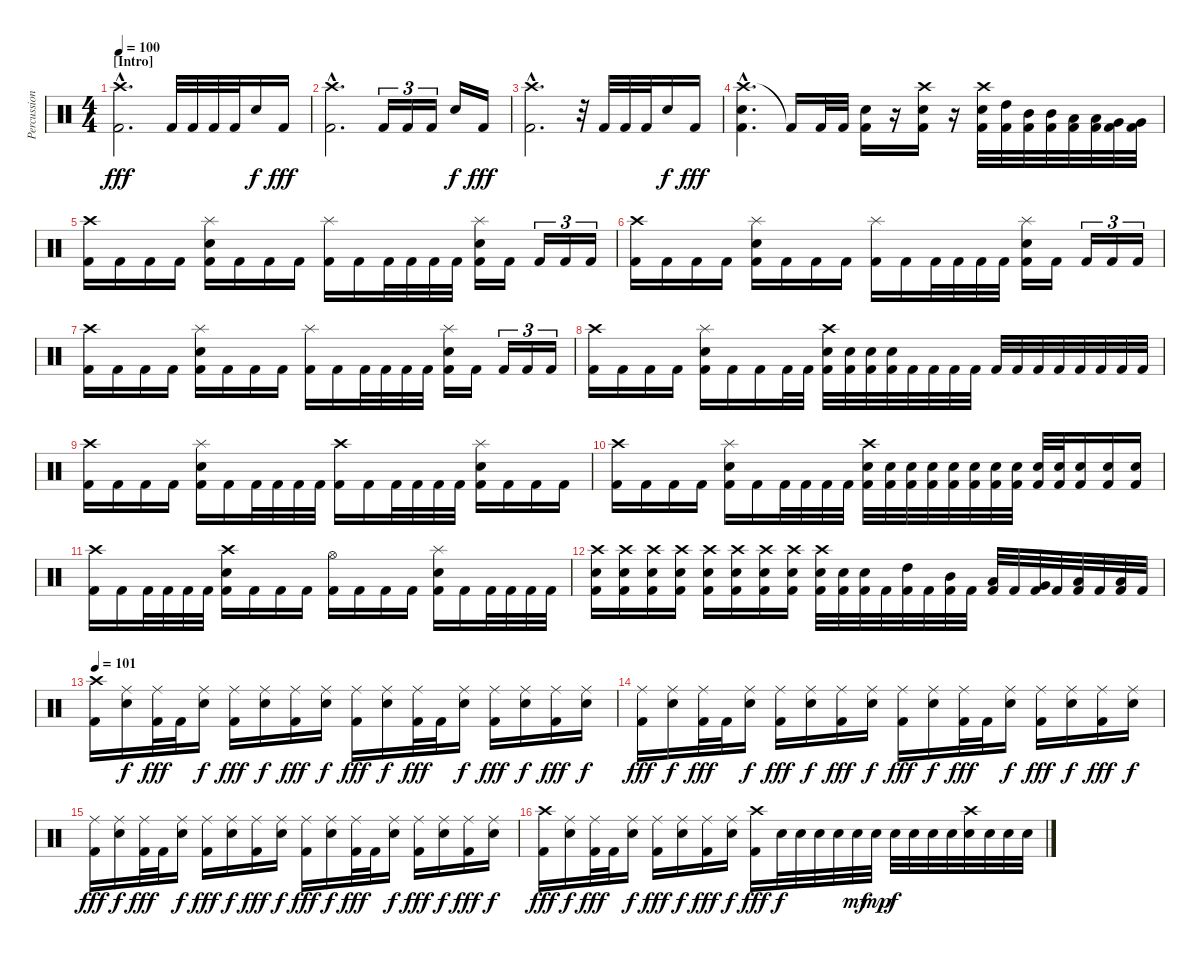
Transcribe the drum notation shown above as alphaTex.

\track ("Percussion" "Percussion") {instrument percussion}
\staff {score}
\articulation defaults
\ts (4 4)
\section ("" "[Intro]")
\tempo 100
\clef neutral
\ks c
("Crash high (hit)"{hac} "Kick (hit) 2"{hac}).2{d dy fff} "Kick (hit) 2".32 "Kick (hit) 2".32 "Kick (hit) 2".32 "Kick (hit) 2".32 "Snare (hit) 2".16{dy f} "Kick (hit) 2".16{dy fff} |
("Crash high (hit)"{hac} "Kick (hit) 2"{hac}).2{d} "Kick (hit) 2".16{tu (3 2)} "Kick (hit) 2".16{tu (3 2)} "Kick (hit) 2".16{tu (3 2)} "Snare (hit) 2".16{dy f} "Kick (hit) 2".16{dy fff} |
("Crash high (hit)"{hac} "Kick (hit) 2"{hac}).2{d} r.32 "Kick (hit) 2".32 "Kick (hit) 2".32 "Kick (hit) 2".32 "Snare (hit) 2".16{dy f} "Kick (hit) 2".16{dy fff} |
("Crash high (hit)"{hac} "Snare (hit) 2"{hac} "Kick (hit) 2"{hac}).4{d} "Kick (hit) 2"{t}.16 "Kick (hit) 2".32 "Kick (hit) 2".32 ("Snare (hit) 2" "Kick (hit) 2").16 r.16 ("Crash high (hit)" "Snare (hit) 2" "Kick (hit) 2").16 r.16 ("Crash high (hit)" "Snare (hit) 2" "Kick (hit) 2").32 ("High Tom (hit)" "Kick (hit) 2").32 ("Mid Tom (hit)" "Kick (hit) 2").32 ("Mid Tom (hit)" "Kick (hit) 2").32 ("Low Tom (hit)" "Kick (hit) 2").32 ("Low Tom (hit)" "Kick (hit) 2").32 ("Very Low Tom (hit)" "Kick (hit) 2").32 ("Very Low Tom (hit)" "Kick (hit) 2").32 |
\section ("" "")
("Crash high (hit)" "Kick (hit) 2").16 "Kick (hit) 2".16 "Kick (hit) 2".16 "Kick (hit) 2".16 ("Splash (hit)" "Snare (hit) 2" "Kick (hit) 2").16 "Kick (hit) 2".16 "Kick (hit) 2".16 "Kick (hit) 2".16 ("Splash (hit)" "Kick (hit) 2").16 "Kick (hit) 2".16 "Kick (hit) 2".32 "Kick (hit) 2".32 "Kick (hit) 2".32 "Kick (hit) 2".32 ("Splash (hit)" "Snare (hit) 2" "Kick (hit) 2").16 "Kick (hit) 2".16 "Kick (hit) 2".16{tu (3 2)} "Kick (hit) 2".16{tu (3 2)} "Kick (hit) 2".16{tu (3 2)} |
("Crash high (hit)" "Kick (hit) 2").16 "Kick (hit) 2".16 "Kick (hit) 2".16 "Kick (hit) 2".16 ("Splash (hit)" "Snare (hit) 2" "Kick (hit) 2").16 "Kick (hit) 2".16 "Kick (hit) 2".16 "Kick (hit) 2".16 ("Splash (hit)" "Kick (hit) 2").16 "Kick (hit) 2".16 "Kick (hit) 2".32 "Kick (hit) 2".32 "Kick (hit) 2".32 "Kick (hit) 2".32 ("Splash (hit)" "Snare (hit) 2" "Kick (hit) 2").16 "Kick (hit) 2".16 "Kick (hit) 2".16{tu (3 2)} "Kick (hit) 2".16{tu (3 2)} "Kick (hit) 2".16{tu (3 2)} |
("Crash high (hit)" "Kick (hit) 2").16 "Kick (hit) 2".16 "Kick (hit) 2".16 "Kick (hit) 2".16 ("Splash (hit)" "Snare (hit) 2" "Kick (hit) 2").16 "Kick (hit) 2".16 "Kick (hit) 2".16 "Kick (hit) 2".16 ("Splash (hit)" "Kick (hit) 2").16 "Kick (hit) 2".16 "Kick (hit) 2".32 "Kick (hit) 2".32 "Kick (hit) 2".32 "Kick (hit) 2".32 ("Splash (hit)" "Snare (hit) 2" "Kick (hit) 2").16 "Kick (hit) 2".16 "Kick (hit) 2".16{tu (3 2)} "Kick (hit) 2".16{tu (3 2)} "Kick (hit) 2".16{tu (3 2)} |
("Crash high (hit)" "Kick (hit) 2").16 "Kick (hit) 2".16 "Kick (hit) 2".16 "Kick (hit) 2".16 ("Splash (hit)" "Snare (hit) 2" "Kick (hit) 2").16 "Kick (hit) 2".16 "Kick (hit) 2".16 "Kick (hit) 2".32 "Kick (hit) 2".32 ("Crash high (hit)" "Snare (hit) 2" "Kick (hit) 2").32 ("Snare (hit) 2" "Kick (hit) 2").32 ("Snare (hit) 2" "Kick (hit) 2").32 ("Snare (hit) 2" "Kick (hit) 2").32 "Kick (hit) 2".32 "Kick (hit) 2".32 "Kick (hit) 2".32 "Kick (hit) 2".32 "Kick (hit) 2".32 "Kick (hit) 2".32 "Kick (hit) 2".32 "Kick (hit) 2".32 "Kick (hit) 2".32 "Kick (hit) 2".32 "Kick (hit) 2".32 "Kick (hit) 2".32 |
\section ("" "")
("Crash high (hit)" "Kick (hit) 2").16 "Kick (hit) 2".16 "Kick (hit) 2".16 "Kick (hit) 2".16 ("Splash (hit)" "Snare (hit) 2" "Kick (hit) 2").16 "Kick (hit) 2".16 "Kick (hit) 2".32 "Kick (hit) 2".32 "Kick (hit) 2".32 "Kick (hit) 2".32 ("Crash high (hit)" "Kick (hit) 2").16 "Kick (hit) 2".16 "Kick (hit) 2".32 "Kick (hit) 2".32 "Kick (hit) 2".32 "Kick (hit) 2".32 ("Splash (hit)" "Snare (hit) 2" "Kick (hit) 2").16 "Kick (hit) 2".16 "Kick (hit) 2".16 "Kick (hit) 2".16 |
("Crash high (hit)" "Kick (hit) 2").16 "Kick (hit) 2".16 "Kick (hit) 2".16 "Kick (hit) 2".16 ("Splash (hit)" "Snare (hit) 2" "Kick (hit) 2").16 "Kick (hit) 2".16 "Kick (hit) 2".32 "Kick (hit) 2".32 "Kick (hit) 2".32 "Kick (hit) 2".32 ("Crash high (hit)" "Snare (hit) 2" "Kick (hit) 2").32 ("Snare (hit) 2" "Kick (hit) 2").32 ("Snare (hit) 2" "Kick (hit) 2").32 ("Snare (hit) 2" "Kick (hit) 2").32 ("Snare (hit) 2" "Kick (hit) 2").32 ("Snare (hit) 2" "Kick (hit) 2").32 ("Snare (hit) 2" "Kick (hit) 2").32 ("Snare (hit) 2" "Kick (hit) 2").32 ("Snare (hit) 2" "Kick (hit) 2").32 ("Snare (hit) 2" "Kick (hit) 2").32 ("Snare (hit) 2" "Kick (hit) 2").16 ("Snare (hit) 2" "Kick (hit) 2").16 ("Snare (hit) 2" "Kick (hit) 2").16 |
("Crash high (hit)" "Kick (hit) 2").16 "Kick (hit) 2".16 "Kick (hit) 2".32 "Kick (hit) 2".32 "Kick (hit) 2".32 "Kick (hit) 2".32 ("Crash high (hit)" "Snare (hit) 2" "Kick (hit) 2").16 "Kick (hit) 2".16 "Kick (hit) 2".16 "Kick (hit) 2".16 ("Hi-Hat (open)" "Kick (hit) 2").16 "Kick (hit) 2".16 "Kick (hit) 2".16 "Kick (hit) 2".16 ("Splash (hit)" "Snare (hit) 2" "Kick (hit) 2").16 "Kick (hit) 2".16 "Kick (hit) 2".32 "Kick (hit) 2".32 "Kick (hit) 2".32 "Kick (hit) 2".32 |
("Crash high (hit)" "Snare (hit) 2" "Kick (hit) 2").16 ("Crash high (hit)" "Snare (hit) 2" "Kick (hit) 2").16 ("Crash high (hit)" "Snare (hit) 2" "Kick (hit) 2").16 ("Crash high (hit)" "Snare (hit) 2" "Kick (hit) 2").16 ("Crash high (hit)" "Snare (hit) 2" "Kick (hit) 2").16 ("Crash high (hit)" "Snare (hit) 2" "Kick (hit) 2").16 ("Crash high (hit)" "Snare (hit) 2" "Kick (hit) 2").16 ("Crash high (hit)" "Snare (hit) 2" "Kick (hit) 2").16 ("Crash high (hit)" "Snare (hit) 2" "Kick (hit) 2").32 ("Snare (hit) 2" "Kick (hit) 2").32 ("Snare (hit) 2" "Kick (hit) 2").32 "Kick (hit) 2".32 ("High Tom (hit)" "Kick (hit) 2").32 "Kick (hit) 2".32 ("Mid Tom (hit)" "Kick (hit) 2").32 "Kick (hit) 2".32 ("Low Tom (hit)" "Kick (hit) 2").32 "Kick (hit) 2".32 ("Very Low Tom (hit)" "Kick (hit) 2").32 "Kick (hit) 2".32 ("Low Floor Tom (hit)" "Kick (hit) 2").32 "Kick (hit) 2".32 ("Low Floor Tom (hit)" "Kick (hit) 2").32 "Kick (hit) 2".32 |
\section ("" "")
\tempo 101
("Crash high (hit)" "Kick (hit) 2").16 ("Ride (middle)" "Snare (hit) 2").16{dy f} ("Ride (middle)" "Kick (hit) 2").32{dy fff} "Kick (hit) 2".32 ("Ride (middle)" "Snare (hit) 2").16{dy f} ("Ride (middle)" "Kick (hit) 2").16{dy fff} ("Ride (middle)" "Snare (hit) 2").16{dy f} ("Ride (middle)" "Kick (hit) 2").16{dy fff} ("Ride (middle)" "Snare (hit) 2").16{dy f} ("Ride (middle)" "Kick (hit) 2").16{dy fff} ("Ride (middle)" "Snare (hit) 2").16{dy f} ("Ride (middle)" "Kick (hit) 2").32{dy fff} "Kick (hit) 2".32 ("Ride (middle)" "Snare (hit) 2").16{dy f} ("Ride (middle)" "Kick (hit) 2").16{dy fff} ("Ride (middle)" "Snare (hit) 2").16{dy f} ("Ride (middle)" "Kick (hit) 2").16{dy fff} ("Ride (middle)" "Snare (hit) 2").16{dy f} |
("Ride (middle)" "Kick (hit) 2").16{dy fff} ("Ride (middle)" "Snare (hit) 2").16{dy f} ("Ride (middle)" "Kick (hit) 2").32{dy fff} "Kick (hit) 2".32 ("Ride (middle)" "Snare (hit) 2").16{dy f} ("Ride (middle)" "Kick (hit) 2").16{dy fff} ("Ride (middle)" "Snare (hit) 2").16{dy f} ("Ride (middle)" "Kick (hit) 2").16{dy fff} ("Ride (middle)" "Snare (hit) 2").16{dy f} ("Ride (middle)" "Kick (hit) 2").16{dy fff} ("Ride (middle)" "Snare (hit) 2").16{dy f} ("Ride (middle)" "Kick (hit) 2").32{dy fff} "Kick (hit) 2".32 ("Ride (middle)" "Snare (hit) 2").16{dy f} ("Ride (middle)" "Kick (hit) 2").16{dy fff} ("Ride (middle)" "Snare (hit) 2").16{dy f} ("Ride (middle)" "Kick (hit) 2").16{dy fff} ("Ride (middle)" "Snare (hit) 2").16{dy f} |
("Ride (middle)" "Kick (hit) 2").16{dy fff} ("Ride (middle)" "Snare (hit) 2").16{dy f} ("Ride (middle)" "Kick (hit) 2").32{dy fff} "Kick (hit) 2".32 ("Ride (middle)" "Snare (hit) 2").16{dy f} ("Ride (middle)" "Kick (hit) 2").16{dy fff} ("Ride (middle)" "Snare (hit) 2").16{dy f} ("Ride (middle)" "Kick (hit) 2").16{dy fff} ("Ride (middle)" "Snare (hit) 2").16{dy f} ("Ride (middle)" "Kick (hit) 2").16{dy fff} ("Ride (middle)" "Snare (hit) 2").16{dy f} ("Ride (middle)" "Kick (hit) 2").32{dy fff} "Kick (hit) 2".32 ("Ride (middle)" "Snare (hit) 2").16{dy f} ("Ride (middle)" "Kick (hit) 2").16{dy fff} ("Ride (middle)" "Snare (hit) 2").16{dy f} ("Ride (middle)" "Kick (hit) 2").16{dy fff} ("Ride (middle)" "Snare (hit) 2").16{dy f} |
("Crash high (hit)" "Kick (hit) 2").16{dy fff} ("Ride (middle)" "Snare (hit) 2").16{dy f} ("Ride (middle)" "Kick (hit) 2").32{dy fff} "Kick (hit) 2".32 ("Ride (middle)" "Snare (hit) 2").16{dy f} ("Ride (middle)" "Kick (hit) 2").16{dy fff} ("Ride (middle)" "Snare (hit) 2").16{dy f} ("Ride (middle)" "Kick (hit) 2").16{dy fff} ("Ride (middle)" "Snare (hit) 2").16{dy f} ("Crash high (hit)" "Kick (hit) 2").16{dy fff} "Snare (hit) 2".32{dy f} "Snare (hit) 2".32 "Snare (hit) 2".32 "Snare (hit) 2".32 "Snare (hit) 2".32{dy mf} "Snare (hit) 2".32{dy mp} "Snare (hit) 2".32{dy f} "Snare (hit) 2".32 "Snare (hit) 2".32 "Snare (hit) 2".32 ("Crash high (hit)" "Snare (hit) 2").32 "Snare (hit) 2".32 "Snare (hit) 2".32 "Snare (hit) 2".32
